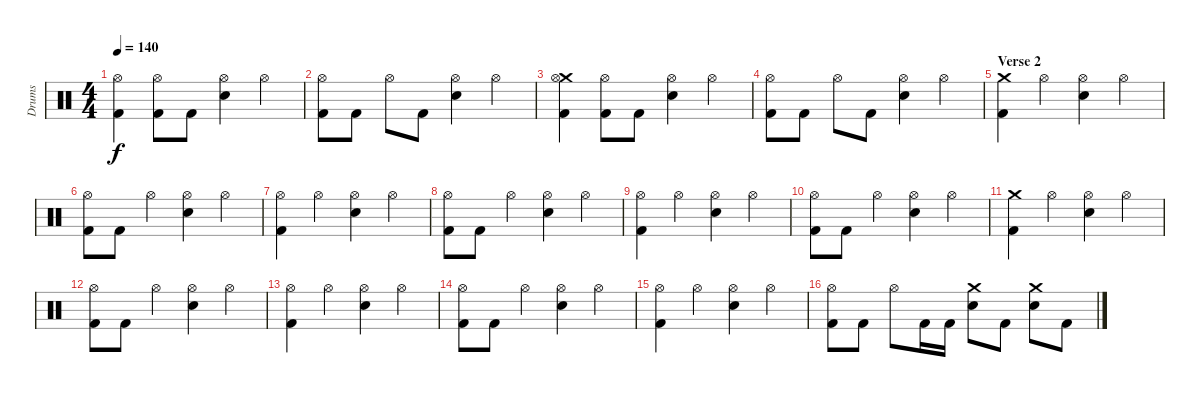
\track ("Drums" "Drums") {instrument percussion}
\staff {score}
\articulation defaults
\ts (4 4)
\tempo 140
\clef neutral
\ks c
("Hi-Hat (open)" "Kick (hit) 2").4{dy f} ("Hi-Hat (open)" "Kick (hit) 2").8 "Kick (hit) 2".8 ("Hi-Hat (open)" "Electric Snare (hit)").4 "Hi-Hat (open)".4 |
("Hi-Hat (open)" "Kick (hit) 2").8 "Kick (hit) 2".8 "Hi-Hat (open)".8 "Kick (hit) 2".8 ("Hi-Hat (open)" "Electric Snare (hit)").4 "Hi-Hat (open)".4 |
("Crash medium (hit)" "Hi-Hat (open)" "Kick (hit) 2").4 ("Hi-Hat (open)" "Kick (hit) 2").8 "Kick (hit) 2".8 ("Hi-Hat (open)" "Electric Snare (hit)").4 "Hi-Hat (open)".4 |
("Hi-Hat (open)" "Kick (hit) 2").8 "Kick (hit) 2".8 "Hi-Hat (open)".8 "Kick (hit) 2".8 ("Hi-Hat (open)" "Electric Snare (hit)").4 "Hi-Hat (open)".4 |
\section ("" "Verse 2")
("Crash medium (hit)" "Kick (hit) 2").4 "Hi-Hat (open)".4 ("Hi-Hat (open)" "Electric Snare (hit)").4 "Hi-Hat (open)".4 |
("Hi-Hat (open)" "Kick (hit) 2").8 "Kick (hit) 2".8 "Hi-Hat (open)".4 ("Hi-Hat (open)" "Electric Snare (hit)").4 "Hi-Hat (open)".4 |
("Hi-Hat (open)" "Kick (hit) 2").4 "Hi-Hat (open)".4 ("Hi-Hat (open)" "Electric Snare (hit)").4 "Hi-Hat (open)".4 |
("Hi-Hat (open)" "Kick (hit) 2").8 "Kick (hit) 2".8 "Hi-Hat (open)".4 ("Hi-Hat (open)" "Electric Snare (hit)").4 "Hi-Hat (open)".4 |
("Hi-Hat (open)" "Kick (hit) 2").4 "Hi-Hat (open)".4 ("Hi-Hat (open)" "Electric Snare (hit)").4 "Hi-Hat (open)".4 |
("Hi-Hat (open)" "Kick (hit) 2").8 "Kick (hit) 2".8 "Hi-Hat (open)".4 ("Hi-Hat (open)" "Electric Snare (hit)").4 "Hi-Hat (open)".4 |
("Crash medium (hit)" "Kick (hit) 2").4 "Hi-Hat (open)".4 ("Hi-Hat (open)" "Electric Snare (hit)").4 "Hi-Hat (open)".4 |
("Hi-Hat (open)" "Kick (hit) 2").8 "Kick (hit) 2".8 "Hi-Hat (open)".4 ("Hi-Hat (open)" "Electric Snare (hit)").4 "Hi-Hat (open)".4 |
("Hi-Hat (open)" "Kick (hit) 2").4 "Hi-Hat (open)".4 ("Hi-Hat (open)" "Electric Snare (hit)").4 "Hi-Hat (open)".4 |
("Hi-Hat (open)" "Kick (hit) 2").8 "Kick (hit) 2".8 "Hi-Hat (open)".4 ("Hi-Hat (open)" "Electric Snare (hit)").4 "Hi-Hat (open)".4 |
("Hi-Hat (open)" "Kick (hit) 2").4 "Hi-Hat (open)".4 ("Hi-Hat (open)" "Electric Snare (hit)").4 "Hi-Hat (open)".4 |
("Hi-Hat (open)" "Kick (hit) 2").8 "Kick (hit) 2".8 "Hi-Hat (open)".8 "Kick (hit) 2".16 "Kick (hit) 2".16 ("Crash medium (hit)" "Electric Snare (hit)").8 "Kick (hit) 2".8 ("Crash medium (hit)" "Electric Snare (hit)").8 "Kick (hit) 2".8
